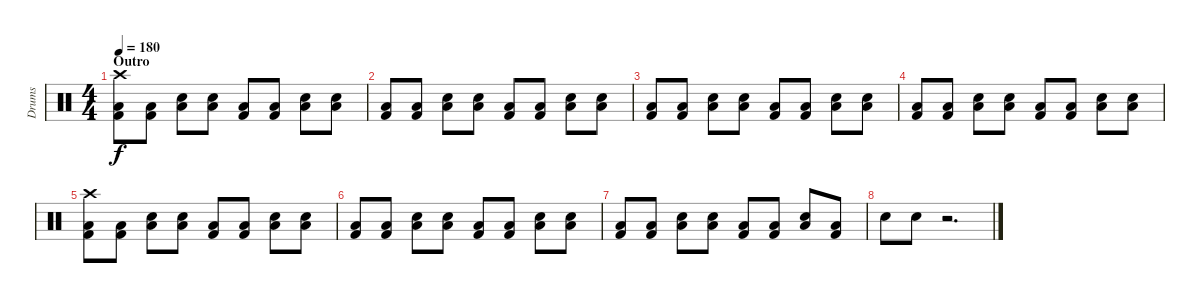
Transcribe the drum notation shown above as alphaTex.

\track ("Drums" "Drums") {instrument percussion}
\staff {score}
\articulation defaults
\ts (4 4)
\section ("" "Outro")
\tempo 180
\clef neutral
\ks c
("Crash high (hit)" "Kick (hit) 2" "Low Floor Tom (hit)").8{dy f} ("Kick (hit) 2" "Low Floor Tom (hit)").8 ("Electric Snare (hit)" "Low Floor Tom (hit)").8 ("Electric Snare (hit)" "Low Floor Tom (hit)").8 ("Kick (hit) 2" "Low Floor Tom (hit)").8 ("Kick (hit) 2" "Low Floor Tom (hit)").8 ("Electric Snare (hit)" "Low Floor Tom (hit)").8 ("Electric Snare (hit)" "Low Floor Tom (hit)").8 |
("Kick (hit) 2" "Low Floor Tom (hit)").8 ("Kick (hit) 2" "Low Floor Tom (hit)").8 ("Electric Snare (hit)" "Low Floor Tom (hit)").8 ("Electric Snare (hit)" "Low Floor Tom (hit)").8 ("Kick (hit) 2" "Low Floor Tom (hit)").8 ("Kick (hit) 2" "Low Floor Tom (hit)").8 ("Electric Snare (hit)" "Low Floor Tom (hit)").8 ("Electric Snare (hit)" "Low Floor Tom (hit)").8 |
("Kick (hit) 2" "Low Floor Tom (hit)").8 ("Kick (hit) 2" "Low Floor Tom (hit)").8 ("Electric Snare (hit)" "Low Floor Tom (hit)").8 ("Electric Snare (hit)" "Low Floor Tom (hit)").8 ("Kick (hit) 2" "Low Floor Tom (hit)").8 ("Kick (hit) 2" "Low Floor Tom (hit)").8 ("Electric Snare (hit)" "Low Floor Tom (hit)").8 ("Electric Snare (hit)" "Low Floor Tom (hit)").8 |
("Kick (hit) 2" "Low Floor Tom (hit)").8 ("Kick (hit) 2" "Low Floor Tom (hit)").8 ("Electric Snare (hit)" "Low Floor Tom (hit)").8 ("Electric Snare (hit)" "Low Floor Tom (hit)").8 ("Kick (hit) 2" "Low Floor Tom (hit)").8 ("Kick (hit) 2" "Low Floor Tom (hit)").8 ("Electric Snare (hit)" "Low Floor Tom (hit)").8 ("Electric Snare (hit)" "Low Floor Tom (hit)").8 |
("Crash high (hit)" "Kick (hit) 2" "Low Floor Tom (hit)").8 ("Kick (hit) 2" "Low Floor Tom (hit)").8 ("Electric Snare (hit)" "Low Floor Tom (hit)").8 ("Electric Snare (hit)" "Low Floor Tom (hit)").8 ("Kick (hit) 2" "Low Floor Tom (hit)").8 ("Kick (hit) 2" "Low Floor Tom (hit)").8 ("Electric Snare (hit)" "Low Floor Tom (hit)").8 ("Electric Snare (hit)" "Low Floor Tom (hit)").8 |
("Kick (hit) 2" "Low Floor Tom (hit)").8 ("Kick (hit) 2" "Low Floor Tom (hit)").8 ("Electric Snare (hit)" "Low Floor Tom (hit)").8 ("Electric Snare (hit)" "Low Floor Tom (hit)").8 ("Kick (hit) 2" "Low Floor Tom (hit)").8 ("Kick (hit) 2" "Low Floor Tom (hit)").8 ("Electric Snare (hit)" "Low Floor Tom (hit)").8 ("Electric Snare (hit)" "Low Floor Tom (hit)").8 |
("Kick (hit) 2" "Low Floor Tom (hit)").8 ("Kick (hit) 2" "Low Floor Tom (hit)").8 ("Electric Snare (hit)" "Low Floor Tom (hit)").8 ("Electric Snare (hit)" "Low Floor Tom (hit)").8 ("Kick (hit) 2" "Low Floor Tom (hit)").8 ("Kick (hit) 2" "Low Floor Tom (hit)").8 ("Electric Snare (hit)" "Low Floor Tom (hit)").8 ("Kick (hit) 2" "Low Floor Tom (hit)").8 |
"Electric Snare (hit)".8 "Electric Snare (hit)".8 r.2{d}
